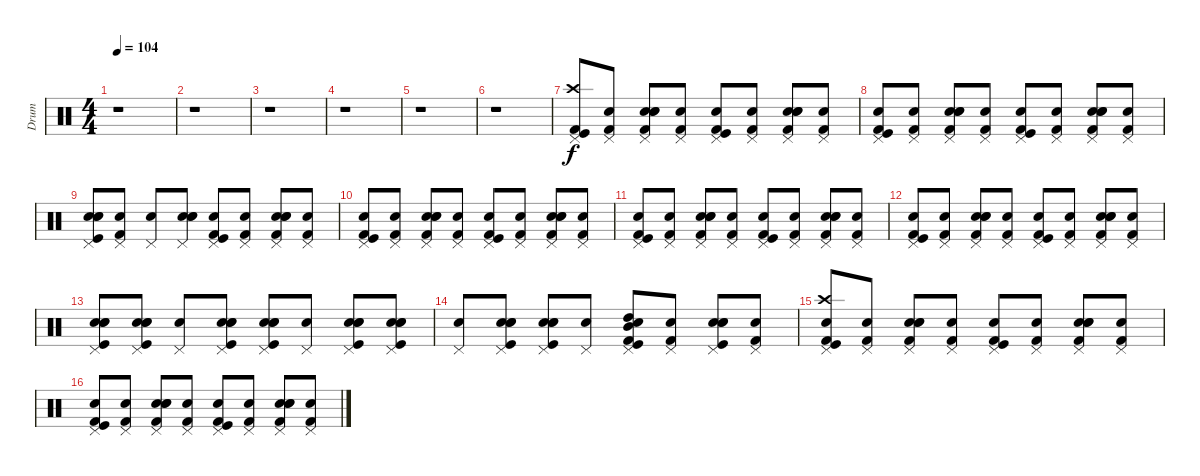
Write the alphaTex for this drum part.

\track ("Drum" "Drum") {instrument percussion}
\staff {score}
\articulation defaults
\ts (4 4)
\tempo 104
\clef neutral
\ks c
r.1{dy f} |
r.1 |
r.1 |
r.1 |
r.1 |
r.1 |
("Kick (hit)" "Crash high (hit)" "Pedal Hi-Hat (hit)" "Kick (hit) 2").8 ("Snare (hit)" "Kick (hit) 2" "Pedal Hi-Hat (hit)").8 ("Snare (hit)" "Pedal Hi-Hat (hit)" "Snare (hit) 2" "Electric Snare (hit)" "Kick (hit) 2").8 ("Snare (hit)" "Kick (hit) 2" "Pedal Hi-Hat (hit)").8 ("Snare (hit)" "Kick (hit)" "Pedal Hi-Hat (hit)" "Kick (hit) 2").8 ("Snare (hit)" "Kick (hit) 2" "Pedal Hi-Hat (hit)").8 ("Snare (hit)" "Pedal Hi-Hat (hit)" "Electric Snare (hit)" "Snare (hit) 2" "Kick (hit) 2").8 ("Snare (hit)" "Kick (hit) 2" "Pedal Hi-Hat (hit)").8 |
("Snare (hit)" "Kick (hit)" "Kick (hit) 2" "Pedal Hi-Hat (hit)").8 ("Snare (hit)" "Kick (hit) 2" "Pedal Hi-Hat (hit)").8 ("Snare (hit)" "Kick (hit) 2" "Electric Snare (hit)" "Snare (hit) 2" "Pedal Hi-Hat (hit)").8 ("Snare (hit)" "Kick (hit) 2" "Pedal Hi-Hat (hit)").8 ("Snare (hit)" "Kick (hit)" "Kick (hit) 2" "Pedal Hi-Hat (hit)").8 ("Snare (hit)" "Kick (hit) 2" "Pedal Hi-Hat (hit)").8 ("Snare (hit)" "Kick (hit) 2" "Snare (hit) 2" "Electric Snare (hit)" "Pedal Hi-Hat (hit)").8 ("Snare (hit)" "Kick (hit) 2" "Pedal Hi-Hat (hit)").8 |
("Snare (hit)" "Electric Snare (hit)" "Snare (hit) 2" "Pedal Hi-Hat (hit)" "Kick (hit)").8 ("Snare (hit)" "Kick (hit) 2" "Pedal Hi-Hat (hit)").8 ("Snare (hit)" "Pedal Hi-Hat (hit)").8 ("Snare (hit)" "Snare (hit) 2" "Electric Snare (hit)" "Pedal Hi-Hat (hit)").8 ("Snare (hit)" "Kick (hit)" "Pedal Hi-Hat (hit)" "Kick (hit) 2").8 ("Snare (hit)" "Kick (hit) 2" "Pedal Hi-Hat (hit)").8 ("Snare (hit)" "Pedal Hi-Hat (hit)" "Electric Snare (hit)" "Snare (hit) 2" "Kick (hit) 2").8 ("Snare (hit)" "Kick (hit) 2" "Pedal Hi-Hat (hit)").8 |
("Snare (hit)" "Kick (hit)" "Pedal Hi-Hat (hit)" "Kick (hit) 2").8 ("Snare (hit)" "Kick (hit) 2" "Pedal Hi-Hat (hit)").8 ("Snare (hit)" "Pedal Hi-Hat (hit)" "Snare (hit) 2" "Electric Snare (hit)" "Kick (hit) 2").8 ("Snare (hit)" "Kick (hit) 2" "Pedal Hi-Hat (hit)").8 ("Snare (hit)" "Kick (hit)" "Pedal Hi-Hat (hit)" "Kick (hit) 2").8 ("Snare (hit)" "Kick (hit) 2" "Pedal Hi-Hat (hit)").8 ("Snare (hit)" "Pedal Hi-Hat (hit)" "Electric Snare (hit)" "Snare (hit) 2" "Kick (hit) 2").8 ("Snare (hit)" "Kick (hit) 2" "Pedal Hi-Hat (hit)").8 |
("Snare (hit)" "Kick (hit)" "Pedal Hi-Hat (hit)" "Kick (hit) 2").8 ("Snare (hit)" "Kick (hit) 2" "Pedal Hi-Hat (hit)").8 ("Snare (hit)" "Pedal Hi-Hat (hit)" "Snare (hit) 2" "Electric Snare (hit)" "Kick (hit) 2").8 ("Snare (hit)" "Kick (hit) 2" "Pedal Hi-Hat (hit)").8 ("Snare (hit)" "Kick (hit) 2" "Pedal Hi-Hat (hit)" "Kick (hit)").8 ("Snare (hit)" "Kick (hit) 2" "Pedal Hi-Hat (hit)").8 ("Snare (hit)" "Pedal Hi-Hat (hit)" "Electric Snare (hit)" "Snare (hit) 2" "Kick (hit) 2").8 ("Snare (hit)" "Kick (hit) 2" "Pedal Hi-Hat (hit)").8 |
("Snare (hit)" "Kick (hit) 2" "Pedal Hi-Hat (hit)" "Kick (hit)").8 ("Snare (hit)" "Kick (hit) 2" "Pedal Hi-Hat (hit)").8 ("Snare (hit)" "Pedal Hi-Hat (hit)" "Snare (hit) 2" "Electric Snare (hit)" "Kick (hit) 2").8 ("Snare (hit)" "Kick (hit) 2" "Pedal Hi-Hat (hit)").8 ("Snare (hit)" "Kick (hit) 2" "Pedal Hi-Hat (hit)" "Kick (hit)").8 ("Snare (hit)" "Kick (hit) 2" "Pedal Hi-Hat (hit)").8 ("Snare (hit)" "Pedal Hi-Hat (hit)" "Electric Snare (hit)" "Snare (hit) 2" "Kick (hit) 2").8 ("Snare (hit)" "Kick (hit) 2" "Pedal Hi-Hat (hit)").8 |
("Snare (hit)" "Electric Snare (hit)" "Kick (hit)" "Snare (hit) 2" "Pedal Hi-Hat (hit)").8 ("Snare (hit)" "Electric Snare (hit)" "Snare (hit) 2" "Pedal Hi-Hat (hit)" "Kick (hit)").8 ("Snare (hit)" "Pedal Hi-Hat (hit)").8 ("Snare (hit)" "Electric Snare (hit)" "Kick (hit)" "Pedal Hi-Hat (hit)" "Snare (hit) 2").8 ("Snare (hit)" "Electric Snare (hit)" "Snare (hit) 2" "Pedal Hi-Hat (hit)" "Kick (hit)").8 ("Snare (hit)" "Pedal Hi-Hat (hit)").8 ("Snare (hit)" "Electric Snare (hit)" "Pedal Hi-Hat (hit)" "Kick (hit)" "Snare (hit) 2").8 ("Snare (hit)" "Electric Snare (hit)" "Kick (hit)" "Snare (hit) 2" "Pedal Hi-Hat (hit)").8 |
("Snare (hit)" "Pedal Hi-Hat (hit)").8 ("Snare (hit)" "Electric Snare (hit)" "Snare (hit) 2" "Kick (hit)" "Pedal Hi-Hat (hit)").8 ("Snare (hit)" "Electric Snare (hit)" "Pedal Hi-Hat (hit)" "Kick (hit)" "Snare (hit) 2").8 ("Snare (hit)" "Pedal Hi-Hat (hit)").8 ("Snare (hit)" "Mid Tom (hit)" "High Tom (hit)" "Kick (hit) 2" "Kick (hit)" "Pedal Hi-Hat (hit)").8 ("Snare (hit)" "Kick (hit) 2" "Pedal Hi-Hat (hit)").8 ("Snare (hit)" "Electric Snare (hit)" "Pedal Hi-Hat (hit)" "Kick (hit)" "Snare (hit) 2").8 ("Snare (hit)" "Kick (hit) 2" "Pedal Hi-Hat (hit)").8 |
("Snare (hit)" "Kick (hit) 2" "Pedal Hi-Hat (hit)" "Crash high (hit)" "Kick (hit)").8 ("Snare (hit)" "Pedal Hi-Hat (hit)" "Kick (hit) 2").8 ("Snare (hit)" "Kick (hit) 2" "Electric Snare (hit)" "Snare (hit) 2" "Pedal Hi-Hat (hit)").8 ("Snare (hit)" "Pedal Hi-Hat (hit)" "Kick (hit) 2").8 ("Snare (hit)" "Kick (hit) 2" "Pedal Hi-Hat (hit)" "Kick (hit)").8 ("Snare (hit)" "Pedal Hi-Hat (hit)" "Kick (hit) 2").8 ("Snare (hit)" "Kick (hit) 2" "Snare (hit) 2" "Electric Snare (hit)" "Pedal Hi-Hat (hit)").8 ("Snare (hit)" "Pedal Hi-Hat (hit)" "Kick (hit) 2").8 |
("Snare (hit)" "Pedal Hi-Hat (hit)" "Kick (hit) 2" "Kick (hit)").8 ("Snare (hit)" "Pedal Hi-Hat (hit)" "Kick (hit) 2").8 ("Snare (hit)" "Pedal Hi-Hat (hit)" "Snare (hit) 2" "Electric Snare (hit)" "Kick (hit) 2").8 ("Snare (hit)" "Pedal Hi-Hat (hit)" "Kick (hit) 2").8 ("Snare (hit)" "Pedal Hi-Hat (hit)" "Kick (hit) 2" "Kick (hit)").8 ("Snare (hit)" "Pedal Hi-Hat (hit)" "Kick (hit) 2").8 ("Snare (hit)" "Pedal Hi-Hat (hit)" "Electric Snare (hit)" "Snare (hit) 2" "Kick (hit) 2").8 ("Snare (hit)" "Pedal Hi-Hat (hit)" "Kick (hit) 2").8
